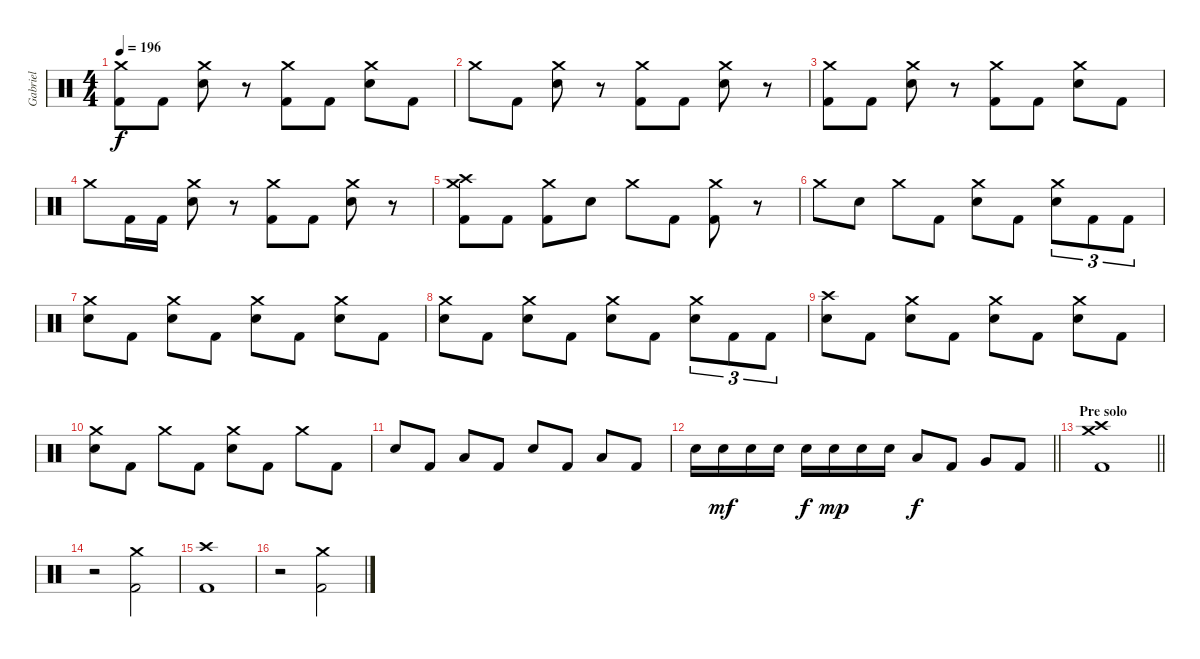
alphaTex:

\track ("Gabriel" "Gabriel") {instrument percussion}
\staff {score}
\articulation defaults
\ts (4 4)
\tempo 196
\clef neutral
\ks c
("Crash medium (hit)" "Kick (hit) 2").8{dy f} "Kick (hit) 2".8 ("Crash medium (hit)" "Electric Snare (hit)").8 r.8 ("Crash medium (hit)" "Kick (hit) 2").8 "Kick (hit) 2".8 ("Crash medium (hit)" "Electric Snare (hit)").8 "Kick (hit) 2".8 |
"Crash medium (hit)".8 "Kick (hit) 2".8 ("Crash medium (hit)" "Electric Snare (hit)").8 r.8 ("Crash medium (hit)" "Kick (hit) 2").8 "Kick (hit) 2".8 ("Crash medium (hit)" "Electric Snare (hit)").8 r.8 |
("Crash medium (hit)" "Kick (hit) 2").8 "Kick (hit) 2".8 ("Crash medium (hit)" "Electric Snare (hit)").8 r.8 ("Crash medium (hit)" "Kick (hit) 2").8 "Kick (hit) 2".8 ("Crash medium (hit)" "Electric Snare (hit)").8 "Kick (hit) 2".8 |
"Crash medium (hit)".8 "Kick (hit) 2".16 "Kick (hit) 2".16 ("Crash medium (hit)" "Electric Snare (hit)").8 r.8 ("Crash medium (hit)" "Kick (hit) 2").8 "Kick (hit) 2".8 ("Crash medium (hit)" "Electric Snare (hit)").8 r.8 |
("Crash high (hit)" "Crash medium (hit)" "Kick (hit) 2").8 "Kick (hit) 2".8 ("Crash medium (hit)" "Kick (hit) 2").8 "Electric Snare (hit)".8 "Crash medium (hit)".8 "Kick (hit) 2".8 ("Crash medium (hit)" "Kick (hit) 2").8 r.8 |
"Crash medium (hit)".8 "Electric Snare (hit)".8 "Crash medium (hit)".8 "Kick (hit) 2".8 ("Crash medium (hit)" "Electric Snare (hit)").8 "Kick (hit) 2".8 ("Crash medium (hit)" "Electric Snare (hit)").8{tu (3 2)} "Kick (hit) 2".8{tu (3 2)} "Kick (hit) 2".8{tu (3 2)} |
("Crash medium (hit)" "Electric Snare (hit)").8 "Kick (hit) 2".8 ("Crash medium (hit)" "Electric Snare (hit)").8 "Kick (hit) 2".8 ("Crash medium (hit)" "Electric Snare (hit)").8 "Kick (hit) 2".8 ("Crash medium (hit)" "Electric Snare (hit)").8 "Kick (hit) 2".8 |
("Crash medium (hit)" "Electric Snare (hit)").8 "Kick (hit) 2".8 ("Crash medium (hit)" "Electric Snare (hit)").8 "Kick (hit) 2".8 ("Crash medium (hit)" "Electric Snare (hit)").8 "Kick (hit) 2".8 ("Crash medium (hit)" "Electric Snare (hit)").8{tu (3 2)} "Kick (hit) 2".8{tu (3 2)} "Kick (hit) 2".8{tu (3 2)} |
("Crash high (hit)" "Electric Snare (hit)").8 "Kick (hit) 2".8 ("Crash medium (hit)" "Electric Snare (hit)").8 "Kick (hit) 2".8 ("Crash medium (hit)" "Electric Snare (hit)").8 "Kick (hit) 2".8 ("Crash medium (hit)" "Electric Snare (hit)").8 "Kick (hit) 2".8 |
("Crash medium (hit)" "Electric Snare (hit)").8 "Kick (hit) 2".8 "Crash medium (hit)".8 "Kick (hit) 2".8 ("Crash medium (hit)" "Electric Snare (hit)").8 "Kick (hit) 2".8 "Crash medium (hit)".8 "Kick (hit) 2".8 |
"Electric Snare (hit)".8 "Kick (hit) 2".8 "Low Tom (hit)".8 "Kick (hit) 2".8 "Electric Snare (hit)".8 "Kick (hit) 2".8 "Low Tom (hit)".8 "Kick (hit) 2".8 |
\barLineRight lightlight "Electric Snare (hit)".16 "Electric Snare (hit)".16{dy mf} "Electric Snare (hit)".16 "Electric Snare (hit)".16 "Electric Snare (hit)".16{dy f} "Electric Snare (hit)".16{dy mp} "Electric Snare (hit)".16 "Electric Snare (hit)".16 "Low Tom (hit)".8{dy f} "Kick (hit) 2".8 "Very Low Tom (hit)".8 "Kick (hit) 2".8
|
\section ("" "Pre solo")
\barLineRight lightlight
("Crash high (hit)" "Crash medium (hit)" "Kick (hit) 2").1 |
r.2 ("Crash medium (hit)" "Kick (hit) 2").2 |
("Crash high (hit)" "Kick (hit) 2").1 |
r.2 ("Crash medium (hit)" "Kick (hit) 2").2
